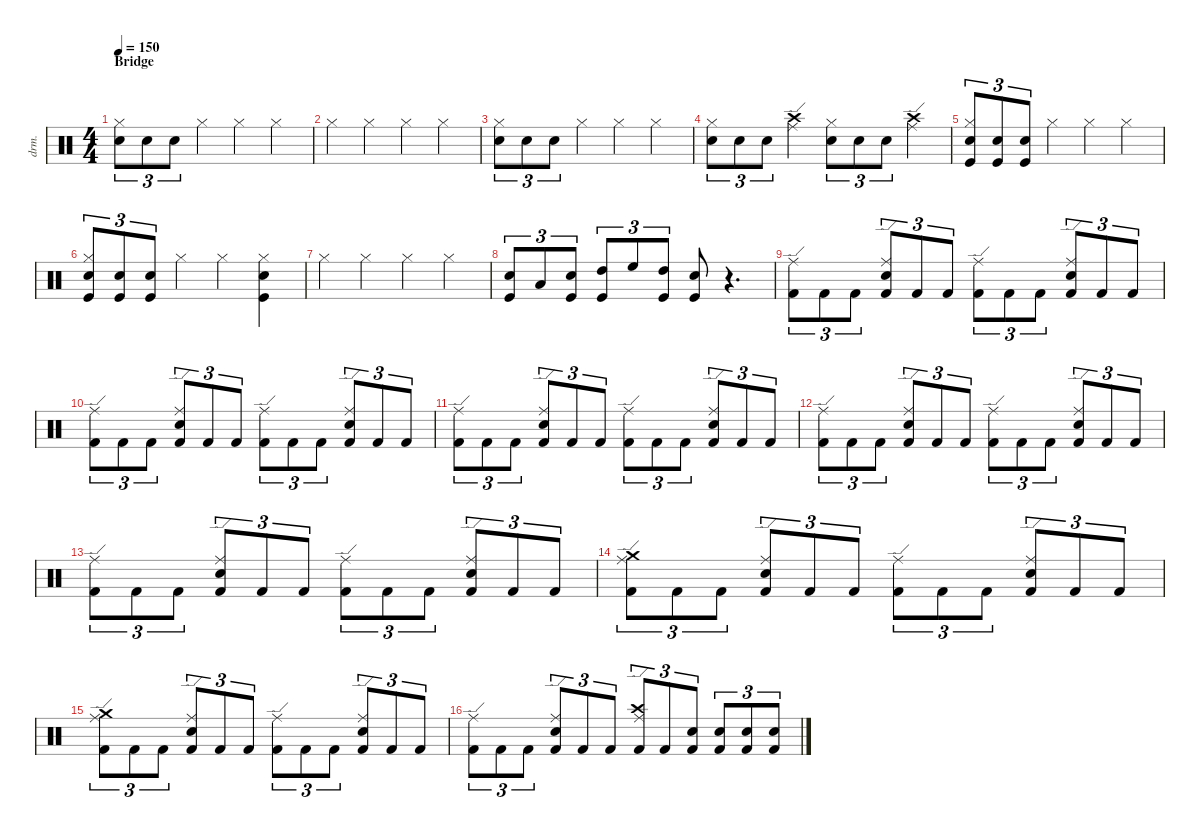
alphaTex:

\defaultSystemsLayout 4
\hideDynamics
\bracketExtendMode nobrackets
\otherSystemsTrackNameOrientation horizontal
\track ("Drumkit" "drm.") {solo instrument percussion}
\staff {score}
\articulation defaults
\ts (4 4)
\section ("" "Bridge")
\scale
1.07061
\tempo 150
\accidentals auto
\clef neutral
\ottava regular
\simile none
\ks aminor
("Hi-Hat (closed)" "Snare (hit) 2").8{tu (3 2) dy mf beam Down} "Snare (hit) 2".8{tu (3 2) beam Down} "Snare (hit) 2".8{tu (3 2) beam Down} "Hi-Hat (closed)".4{beam Down} "Hi-Hat (closed)".4{beam Down} "Hi-Hat (closed)".4{beam Down} |
\scale
0.976463 "Hi-Hat (closed)".4{beam Down} "Hi-Hat (closed)".4{beam Down} "Hi-Hat (closed)".4{beam Down} "Hi-Hat (closed)".4{beam Down} |
\scale
0.976463 ("Hi-Hat (closed)" "Snare (hit) 2").8{tu (3 2) beam Down} "Snare (hit) 2".8{tu (3 2) beam Down} "Snare (hit) 2".8{tu (3 2) beam Down} "Hi-Hat (closed)".4{beam Down} "Hi-Hat (closed)".4{beam Down} "Hi-Hat (closed)".4{beam Down} |
\scale
0.976463 ("Hi-Hat (closed)" "Snare (hit) 2").8{tu (3 2) beam Down} "Snare (hit) 2".8{tu (3 2) beam Down} "Snare (hit) 2".8{tu (3 2) beam Down} ("Crash high (hit)" "Ride (edge)").4{beam Down} ("Hi-Hat (closed)" "Snare (hit) 2").8{tu (3 2) beam Down} "Snare (hit) 2".8{tu (3 2) beam Down} "Snare (hit) 2".8{tu (3 2) beam Down} ("Crash high (hit)" "Ride (edge)").4{beam Down} |
\scale
1.07061 ("Hi-Hat (closed)" "Snare (hit) 2" "Kick (hit)").8{tu (3 2) beam Up} ("Snare (hit) 2" "Kick (hit)").8{tu (3 2) beam Up} ("Snare (hit) 2" "Kick (hit)").8{tu (3 2) beam Up} "Hi-Hat (closed)".4{beam Down} "Hi-Hat (closed)".4{beam Down} "Hi-Hat (closed)".4{beam Down} |
\scale
0.976463 ("Hi-Hat (closed)" "Snare (hit) 2" "Kick (hit)").8{tu (3 2) beam Up} ("Snare (hit) 2" "Kick (hit)").8{tu (3 2) beam Up} ("Snare (hit) 2" "Kick (hit)").8{tu (3 2) beam Up} "Hi-Hat (closed)".4{beam Down} "Hi-Hat (closed)".4{beam Down} ("Hi-Hat (closed)" "Snare (hit) 2" "Kick (hit)").4{beam Down} |
\scale
0.976463 "Hi-Hat (closed)".4{beam Down} "Hi-Hat (closed)".4{beam Down} "Hi-Hat (closed)".4{beam Down} "Hi-Hat (closed)".4{beam Down} |
\scale
0.976463 ("Snare (hit) 2" "Kick (hit)").8{tu (3 2) beam Up} "Low Tom (hit)".8{tu (3 2) beam Up} ("Snare (hit) 2" "Kick (hit)").8{tu (3 2) beam Up} ("High Tom (hit)" "Kick (hit)").8{tu (3 2) beam Up} "High Floor Tom (hit)".8{tu (3 2) beam Up} ("High Tom (hit)" "Kick (hit)").8{tu (3 2) beam Up} ("Snare (hit) 2" "Kick (hit)").8{dy ff beam Up} r.4{d beam Up} |
\scale
1.07061 ("Kick (hit) 2" "Ride (edge)").8{tu (3 2) dy mf beam Down} "Kick (hit) 2".8{tu (3 2) beam Down} "Kick (hit) 2".8{tu (3 2) beam Down} ("Kick (hit) 2" "Snare (hit) 2" "Ride (edge)").8{tu (3 2) beam Up} "Kick (hit) 2".8{tu (3 2) beam Up} "Kick (hit) 2".8{tu (3 2) beam Up} ("Kick (hit) 2" "Ride (edge)").8{tu (3 2) beam Down} "Kick (hit) 2".8{tu (3 2) beam Down} "Kick (hit) 2".8{tu (3 2) beam Down} ("Kick (hit) 2" "Snare (hit) 2" "Ride (edge)").8{tu (3 2) beam Up} "Kick (hit) 2".8{tu (3 2) beam Up} "Kick (hit) 2".8{tu (3 2) beam Up} |
\scale
0.976463 ("Kick (hit) 2" "Ride (edge)").8{tu (3 2) beam Down} "Kick (hit) 2".8{tu (3 2) beam Down} "Kick (hit) 2".8{tu (3 2) beam Down} ("Kick (hit) 2" "Snare (hit) 2" "Ride (edge)").8{tu (3 2) beam Up} "Kick (hit) 2".8{tu (3 2) beam Up} "Kick (hit) 2".8{tu (3 2) beam Up} ("Kick (hit) 2" "Ride (edge)").8{tu (3 2) beam Down} "Kick (hit) 2".8{tu (3 2) beam Down} "Kick (hit) 2".8{tu (3 2) beam Down} ("Kick (hit) 2" "Snare (hit) 2" "Ride (edge)").8{tu (3 2) beam Up} "Kick (hit) 2".8{tu (3 2) beam Up} "Kick (hit) 2".8{tu (3 2) beam Up} |
\scale
0.976463 ("Kick (hit) 2" "Ride (edge)").8{tu (3 2) beam Down} "Kick (hit) 2".8{tu (3 2) beam Down} "Kick (hit) 2".8{tu (3 2) beam Down} ("Kick (hit) 2" "Snare (hit) 2" "Ride (edge)").8{tu (3 2) beam Up} "Kick (hit) 2".8{tu (3 2) beam Up} "Kick (hit) 2".8{tu (3 2) beam Up} ("Kick (hit) 2" "Ride (edge)").8{tu (3 2) beam Down} "Kick (hit) 2".8{tu (3 2) beam Down} "Kick (hit) 2".8{tu (3 2) beam Down} ("Kick (hit) 2" "Snare (hit) 2" "Ride (edge)").8{tu (3 2) beam Up} "Kick (hit) 2".8{tu (3 2) beam Up} "Kick (hit) 2".8{tu (3 2) beam Up} |
\scale
0.976463 ("Kick (hit) 2" "Ride (edge)").8{tu (3 2) beam Down} "Kick (hit) 2".8{tu (3 2) beam Down} "Kick (hit) 2".8{tu (3 2) beam Down} ("Kick (hit) 2" "Snare (hit) 2" "Ride (edge)").8{tu (3 2) beam Up} "Kick (hit) 2".8{tu (3 2) beam Up} "Kick (hit) 2".8{tu (3 2) beam Up} ("Kick (hit) 2" "Ride (edge)").8{tu (3 2) beam Down} "Kick (hit) 2".8{tu (3 2) beam Down} "Kick (hit) 2".8{tu (3 2) beam Down} ("Kick (hit) 2" "Snare (hit) 2" "Ride (edge)").8{tu (3 2) beam Up} "Kick (hit) 2".8{tu (3 2) beam Up} "Kick (hit) 2".8{tu (3 2) beam Up} |
\scale
1.06619 ("Kick (hit) 2" "Ride (edge)").8{tu (3 2) beam Down} "Kick (hit) 2".8{tu (3 2) beam Down} "Kick (hit) 2".8{tu (3 2) beam Down} ("Kick (hit) 2" "Snare (hit) 2" "Ride (edge)").8{tu (3 2) beam Up} "Kick (hit) 2".8{tu (3 2) beam Up} "Kick (hit) 2".8{tu (3 2) beam Up} ("Kick (hit) 2" "Ride (edge)").8{tu (3 2) beam Down} "Kick (hit) 2".8{tu (3 2) beam Down} "Kick (hit) 2".8{tu (3 2) beam Down} ("Kick (hit) 2" "Snare (hit) 2" "Ride (edge)").8{tu (3 2) beam Up} "Kick (hit) 2".8{tu (3 2) beam Up} "Kick (hit) 2".8{tu (3 2) beam Up} |
\scale
0.972042 ("Kick (hit) 2" "Ride (edge)" "Crash medium (hit)").8{tu (3 2) beam Down} "Kick (hit) 2".8{tu (3 2) beam Down} "Kick (hit) 2".8{tu (3 2) beam Down} ("Kick (hit) 2" "Snare (hit) 2" "Ride (edge)").8{tu (3 2) beam Up} "Kick (hit) 2".8{tu (3 2) beam Up} "Kick (hit) 2".8{tu (3 2) beam Up} ("Kick (hit) 2" "Ride (edge)").8{tu (3 2) beam Down} "Kick (hit) 2".8{tu (3 2) beam Down} "Kick (hit) 2".8{tu (3 2) beam Down} ("Kick (hit) 2" "Snare (hit) 2" "Ride (edge)").8{tu (3 2) beam Up} "Kick (hit) 2".8{tu (3 2) beam Up} "Kick (hit) 2".8{tu (3 2) beam Up} |
\scale
0.972042 ("Kick (hit) 2" "Ride (edge)" "Crash medium (hit)").8{tu (3 2) beam Down} "Kick (hit) 2".8{tu (3 2) beam Down} "Kick (hit) 2".8{tu (3 2) beam Down} ("Kick (hit) 2" "Snare (hit) 2" "Ride (edge)").8{tu (3 2) beam Up} "Kick (hit) 2".8{tu (3 2) beam Up} "Kick (hit) 2".8{tu (3 2) beam Up} ("Kick (hit) 2" "Ride (edge)").8{tu (3 2) beam Down} "Kick (hit) 2".8{tu (3 2) beam Down} "Kick (hit) 2".8{tu (3 2) beam Down} ("Kick (hit) 2" "Snare (hit) 2" "Ride (edge)").8{tu (3 2) beam Up} "Kick (hit) 2".8{tu (3 2) beam Up} "Kick (hit) 2".8{tu (3 2) beam Up} |
\scale
0.989726 ("Kick (hit) 2" "Ride (edge)").8{tu (3 2) beam Down} "Kick (hit) 2".8{tu (3 2) beam Down} "Kick (hit) 2".8{tu (3 2) beam Down} ("Kick (hit) 2" "Snare (hit) 2" "Ride (edge)").8{tu (3 2) beam Up} "Kick (hit) 2".8{tu (3 2) beam Up} "Kick (hit) 2".8{tu (3 2) beam Up} ("Kick (hit) 2" "Ride (edge)" "Crash high (hit)").8{tu (3 2) beam Up} "Kick (hit) 2".8{tu (3 2) beam Up} ("Kick (hit) 2" "Snare (hit) 2").8{tu (3 2) beam Up} ("Kick (hit) 2" "Snare (hit) 2").8{tu (3 2) beam Up} ("Kick (hit) 2" "Snare (hit) 2").8{tu (3 2) beam Up} ("Kick (hit) 2" "Snare (hit) 2").8{tu (3 2) beam Up}
